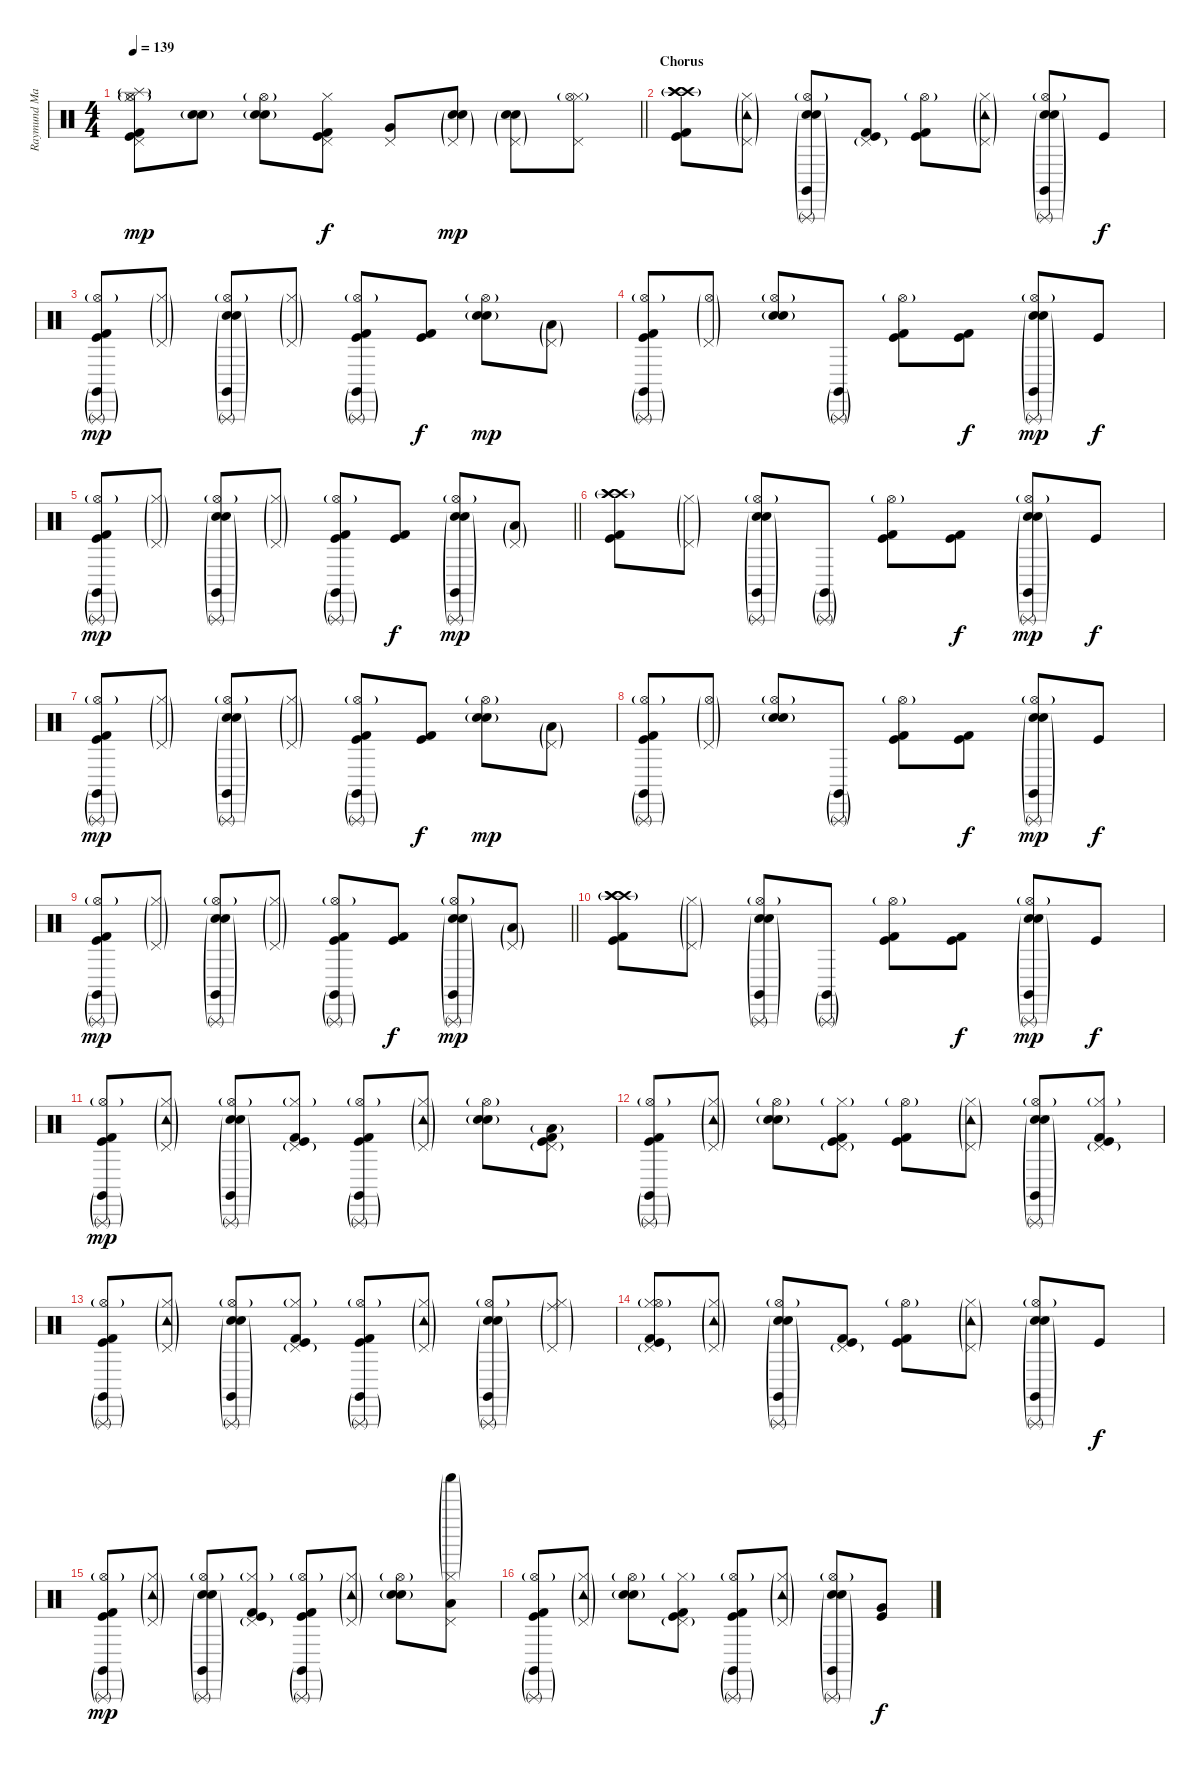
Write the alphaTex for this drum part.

\track ("Raymund Marasigan(Drums)" "Raymund Ma") {instrument percussion}
\staff {score}
\articulation defaults
\ts (4 4)
\tempo 139
\clef neutral
\barLineRight lightlight
\ks c
("Pedal Hi-Hat (hit)" "Hi-Hat (closed)" "Hi-Hat (open)"{g} "Kick (hit) 2" "Kick (hit)" "Splash (hit)"{g}).8{dy mp} ("Electric Snare (hit)" "Snare (hit) 2"{g}).8 ("Electric Snare (hit)" "Snare (hit) 2"{g} "Hi-Hat (open)"{g}).8 ("Pedal Hi-Hat (hit)" "Hi-Hat (closed)" "Kick (hit) 2" "Kick (hit)").8{dy f} ("Pedal Hi-Hat (hit)" "Very Low Tom (hit)").8 ("Pedal Hi-Hat (hit)"{g} "Electric Snare (hit)" "Snare (hit) 2"{g}).8{dy mp} ("Pedal Hi-Hat (hit)"{g} "Electric Snare (hit)" "Snare (hit) 2"{g}).8 ("Pedal Hi-Hat (hit)" "Hi-Hat (closed)" "Hi-Hat (open)"{g}).8 |
\section ("" "Chorus")
("Crash high (hit)"{g} "Crash high (hit)"{g} "Crash high (hit)"{g} "Kick (hit) 2" "Kick (hit)").8 ("Pedal Hi-Hat (hit)"{g} "Hi-Hat (closed)"{g} "Tambourine (hit)"{g}).8 ("Electric Snare (hit)" "Snare (hit) 2"{g} "Hi-Hat (open)"{g} "Triangle (rnute)"{g} "Claves (hit)"{g}).8 ("Kick (hit) 2" "Kick (hit)" "Pedal Hi-Hat (hit)"{g}).8 ("Kick (hit) 2" "Kick (hit)" "Hi-Hat (open)"{g}).8 ("Pedal Hi-Hat (hit)"{g} "Hi-Hat (closed)"{g} "Tambourine (hit)"{g}).8 ("Electric Snare (hit)" "Snare (hit) 2"{g} "Hi-Hat (open)"{g} "Triangle (rnute)"{g} "Claves (hit)"{g}).8 "Kick (hit)".8{dy f} |
("Kick (hit) 2" "Kick (hit)" "Triangle (rnute)"{g} "Claves (hit)"{g} "Hi-Hat (open)"{g}).8{dy mp} ("Pedal Hi-Hat (hit)"{g} "Hi-Hat (closed)"{g}).8 ("Electric Snare (hit)" "Snare (hit) 2"{g} "Hi-Hat (open)"{g} "Triangle (rnute)"{g} "Claves (hit)"{g}).8 ("Pedal Hi-Hat (hit)"{g} "Hi-Hat (closed)"{g}).8 ("Kick (hit) 2" "Kick (hit)" "Triangle (rnute)"{g} "Claves (hit)"{g} "Hi-Hat (open)"{g}).8 ("Kick (hit) 2" "Kick (hit)").8{dy f} ("Electric Snare (hit)" "Snare (hit) 2"{g} "Hi-Hat (open)"{g}).8{dy mp} ("Pedal Hi-Hat (hit)"{g} "Low Tom (hit)"{g}).8 |
("Hi-Hat (open)"{g} "Triangle (rnute)"{g} "Claves (hit)"{g} "Kick (hit) 2" "Kick (hit)").8 ("Pedal Hi-Hat (hit)"{g} "Hi-Hat (open)"{g}).8 ("Electric Snare (hit)" "Snare (hit) 2"{g} "Hi-Hat (open)"{g}).8 ("Triangle (rnute)"{g} "Claves (hit)"{g}).8 ("Kick (hit) 2" "Kick (hit)" "Hi-Hat (open)"{g}).8 ("Kick (hit) 2" "Kick (hit)").8{dy f} ("Electric Snare (hit)" "Snare (hit) 2"{g} "Hi-Hat (open)"{g} "Triangle (rnute)"{g} "Claves (hit)"{g}).8{dy mp} "Kick (hit)".8{dy f} |
\barLineRight lightlight
("Kick (hit) 2" "Kick (hit)" "Triangle (rnute)"{g} "Claves (hit)"{g} "Hi-Hat (open)"{g}).8{dy mp} ("Pedal Hi-Hat (hit)"{g} "Hi-Hat (closed)"{g}).8 ("Electric Snare (hit)" "Snare (hit) 2"{g} "Hi-Hat (open)"{g} "Triangle (rnute)"{g} "Claves (hit)"{g}).8 ("Pedal Hi-Hat (hit)"{g} "Hi-Hat (closed)"{g}).8 ("Kick (hit) 2" "Kick (hit)" "Triangle (rnute)"{g} "Claves (hit)"{g} "Hi-Hat (open)"{g}).8 ("Kick (hit) 2" "Kick (hit)").8{dy f} ("Electric Snare (hit)" "Snare (hit) 2"{g} "Hi-Hat (open)"{g} "Triangle (rnute)"{g} "Claves (hit)"{g}).8{dy mp} ("Pedal Hi-Hat (hit)"{g} "Low Tom (hit)"{g}).8 |
("Crash high (hit)"{g} "Crash high (hit)"{g} "Crash high (hit)"{g} "Kick (hit) 2" "Kick (hit)").8 ("Pedal Hi-Hat (hit)"{g} "Hi-Hat (closed)"{g}).8 ("Electric Snare (hit)" "Snare (hit) 2"{g} "Hi-Hat (open)"{g} "Triangle (rnute)"{g} "Claves (hit)"{g}).8 ("Triangle (rnute)"{g} "Claves (hit)"{g}).8 ("Kick (hit) 2" "Kick (hit)" "Hi-Hat (open)"{g}).8 ("Kick (hit) 2" "Kick (hit)").8{dy f} ("Electric Snare (hit)" "Snare (hit) 2"{g} "Hi-Hat (open)"{g} "Triangle (rnute)"{g} "Claves (hit)"{g}).8{dy mp} "Kick (hit)".8{dy f} |
("Kick (hit) 2" "Kick (hit)" "Triangle (rnute)"{g} "Claves (hit)"{g} "Hi-Hat (open)"{g}).8{dy mp} ("Pedal Hi-Hat (hit)"{g} "Hi-Hat (closed)"{g}).8 ("Electric Snare (hit)" "Snare (hit) 2"{g} "Hi-Hat (open)"{g} "Triangle (rnute)"{g} "Claves (hit)"{g}).8 ("Pedal Hi-Hat (hit)"{g} "Hi-Hat (closed)"{g}).8 ("Kick (hit) 2" "Kick (hit)" "Triangle (rnute)"{g} "Claves (hit)"{g} "Hi-Hat (open)"{g}).8 ("Kick (hit) 2" "Kick (hit)").8{dy f} ("Electric Snare (hit)" "Snare (hit) 2"{g} "Hi-Hat (open)"{g}).8{dy mp} ("Pedal Hi-Hat (hit)"{g} "Low Tom (hit)"{g}).8 |
("Hi-Hat (open)"{g} "Triangle (rnute)"{g} "Claves (hit)"{g} "Kick (hit) 2" "Kick (hit)").8 ("Pedal Hi-Hat (hit)"{g} "Hi-Hat (open)"{g}).8 ("Electric Snare (hit)" "Snare (hit) 2"{g} "Hi-Hat (open)"{g}).8 ("Triangle (rnute)"{g} "Claves (hit)"{g}).8 ("Kick (hit) 2" "Kick (hit)" "Hi-Hat (open)"{g}).8 ("Kick (hit) 2" "Kick (hit)").8{dy f} ("Electric Snare (hit)" "Snare (hit) 2"{g} "Hi-Hat (open)"{g} "Triangle (rnute)"{g} "Claves (hit)"{g}).8{dy mp} "Kick (hit)".8{dy f} |
\barLineRight lightlight
("Kick (hit) 2" "Kick (hit)" "Triangle (rnute)"{g} "Claves (hit)"{g} "Hi-Hat (open)"{g}).8{dy mp} ("Pedal Hi-Hat (hit)"{g} "Hi-Hat (closed)"{g}).8 ("Electric Snare (hit)" "Snare (hit) 2"{g} "Hi-Hat (open)"{g} "Triangle (rnute)"{g} "Claves (hit)"{g}).8 ("Pedal Hi-Hat (hit)"{g} "Hi-Hat (closed)"{g}).8 ("Kick (hit) 2" "Kick (hit)" "Triangle (rnute)"{g} "Claves (hit)"{g} "Hi-Hat (open)"{g}).8 ("Kick (hit) 2" "Kick (hit)").8{dy f} ("Electric Snare (hit)" "Snare (hit) 2"{g} "Hi-Hat (open)"{g} "Triangle (rnute)"{g} "Claves (hit)"{g}).8{dy mp} ("Pedal Hi-Hat (hit)"{g} "Low Tom (hit)"{g}).8 |
("Crash high (hit)"{g} "Crash high (hit)"{g} "Crash high (hit)"{g} "Kick (hit) 2" "Kick (hit)").8 ("Pedal Hi-Hat (hit)"{g} "Hi-Hat (closed)"{g}).8 ("Electric Snare (hit)" "Snare (hit) 2"{g} "Hi-Hat (open)"{g} "Triangle (rnute)"{g} "Claves (hit)"{g}).8 ("Triangle (rnute)"{g} "Claves (hit)"{g}).8 ("Kick (hit) 2" "Kick (hit)" "Hi-Hat (open)"{g}).8 ("Kick (hit) 2" "Kick (hit)").8{dy f} ("Electric Snare (hit)" "Snare (hit) 2"{g} "Hi-Hat (open)"{g} "Triangle (rnute)"{g} "Claves (hit)"{g}).8{dy mp} "Kick (hit)".8{dy f} |
("Kick (hit) 2" "Kick (hit)" "Triangle (rnute)"{g} "Claves (hit)"{g} "Hi-Hat (open)"{g}).8{dy mp} ("Pedal Hi-Hat (hit)"{g} "Hi-Hat (closed)"{g} "Tambourine (hit)"{g}).8 ("Electric Snare (hit)" "Snare (hit) 2"{g} "Hi-Hat (open)"{g} "Triangle (rnute)"{g} "Claves (hit)"{g}).8 ("Kick (hit) 2" "Kick (hit)" "Pedal Hi-Hat (hit)"{g} "Hi-Hat (closed)"{g}).8 ("Kick (hit) 2" "Kick (hit)" "Triangle (rnute)"{g} "Claves (hit)"{g} "Hi-Hat (open)"{g}).8 ("Pedal Hi-Hat (hit)"{g} "Hi-Hat (closed)"{g} "Tambourine (hit)"{g}).8 ("Electric Snare (hit)" "Snare (hit) 2"{g} "Hi-Hat (open)"{g}).8 ("Pedal Hi-Hat (hit)"{g} "Low Tom (hit)"{g} "Kick (hit) 2" "Kick (hit)").8 |
("Hi-Hat (open)"{g} "Triangle (rnute)"{g} "Claves (hit)"{g} "Kick (hit) 2" "Kick (hit)").8 ("Pedal Hi-Hat (hit)"{g} "Hi-Hat (closed)"{g} "Tambourine (hit)"{g}).8 ("Electric Snare (hit)" "Snare (hit) 2"{g} "Hi-Hat (open)"{g}).8 ("Kick (hit) 2" "Kick (hit)" "Pedal Hi-Hat (hit)"{g} "Hi-Hat (closed)"{g}).8 ("Kick (hit) 2" "Kick (hit)" "Hi-Hat (open)"{g}).8 ("Pedal Hi-Hat (hit)"{g} "Hi-Hat (closed)"{g} "Tambourine (hit)"{g}).8 ("Electric Snare (hit)" "Snare (hit) 2"{g} "Hi-Hat (open)"{g} "Triangle (rnute)"{g} "Claves (hit)"{g}).8 ("Kick (hit)" "Kick (hit) 2" "Pedal Hi-Hat (hit)"{g} "Hi-Hat (closed)"{g}).8 |
("Kick (hit) 2" "Kick (hit)" "Triangle (rnute)"{g} "Claves (hit)"{g} "Hi-Hat (open)"{g}).8 ("Pedal Hi-Hat (hit)"{g} "Hi-Hat (closed)"{g} "Tambourine (hit)"{g}).8 ("Electric Snare (hit)" "Snare (hit) 2"{g} "Hi-Hat (open)"{g} "Triangle (rnute)"{g} "Claves (hit)"{g}).8 ("Kick (hit) 2" "Kick (hit)" "Pedal Hi-Hat (hit)"{g} "Hi-Hat (closed)"{g}).8 ("Kick (hit) 2" "Kick (hit)" "Triangle (rnute)"{g} "Claves (hit)"{g} "Hi-Hat (open)"{g}).8 ("Pedal Hi-Hat (hit)"{g} "Hi-Hat (closed)"{g} "Tambourine (hit)"{g}).8 ("Electric Snare (hit)" "Snare (hit) 2"{g} "Hi-Hat (open)"{g} "Triangle (rnute)"{g} "Claves (hit)"{g}).8 ("Pedal Hi-Hat (hit)"{g} "Hi-Hat (closed)"{g} "Ride (middle)"{g}).8 |
("Pedal Hi-Hat (hit)"{g} "Hi-Hat (closed)"{g} "Hi-Hat (open)"{g} "Kick (hit) 2" "Kick (hit)").8 ("Pedal Hi-Hat (hit)"{g} "Hi-Hat (closed)"{g} "Tambourine (hit)"{g}).8 ("Electric Snare (hit)" "Snare (hit) 2"{g} "Hi-Hat (open)"{g} "Triangle (rnute)"{g} "Claves (hit)"{g}).8 ("Kick (hit) 2" "Kick (hit)" "Pedal Hi-Hat (hit)"{g}).8 ("Kick (hit) 2" "Kick (hit)" "Hi-Hat (open)"{g}).8 ("Pedal Hi-Hat (hit)"{g} "Hi-Hat (closed)"{g} "Tambourine (hit)"{g}).8 ("Electric Snare (hit)" "Snare (hit) 2"{g} "Hi-Hat (open)"{g} "Triangle (rnute)"{g} "Claves (hit)"{g}).8 "Kick (hit)".8{dy f} |
("Kick (hit) 2" "Kick (hit)" "Triangle (rnute)"{g} "Claves (hit)"{g} "Hi-Hat (open)"{g}).8{dy mp} ("Pedal Hi-Hat (hit)"{g} "Hi-Hat (closed)"{g} "Tambourine (hit)"{g}).8 ("Electric Snare (hit)" "Snare (hit) 2"{g} "Hi-Hat (open)"{g} "Triangle (rnute)"{g} "Claves (hit)"{g}).8 ("Kick (hit) 2" "Kick (hit)" "Pedal Hi-Hat (hit)"{g} "Hi-Hat (closed)"{g}).8 ("Kick (hit) 2" "Kick (hit)" "Triangle (rnute)"{g} "Claves (hit)"{g} "Hi-Hat (open)"{g}).8 ("Pedal Hi-Hat (hit)"{g} "Hi-Hat (closed)"{g} "Tambourine (hit)"{g}).8 ("Electric Snare (hit)" "Snare (hit) 2"{g} "Hi-Hat (open)"{g}).8 ("Pedal Hi-Hat (hit)" "Hi-Hat (closed)"{g} "Shaker (hit)"{g} "Low Tom (hit)").8 |
("Hi-Hat (open)"{g} "Triangle (rnute)"{g} "Claves (hit)"{g} "Kick (hit) 2" "Kick (hit)").8 ("Pedal Hi-Hat (hit)"{g} "Hi-Hat (closed)"{g} "Tambourine (hit)"{g}).8 ("Electric Snare (hit)" "Snare (hit) 2"{g} "Hi-Hat (open)"{g}).8 ("Kick (hit) 2" "Kick (hit)" "Pedal Hi-Hat (hit)"{g} "Hi-Hat (closed)"{g}).8 ("Kick (hit) 2" "Kick (hit)" "Triangle (rnute)"{g} "Claves (hit)"{g} "Hi-Hat (open)"{g}).8 ("Pedal Hi-Hat (hit)"{g} "Hi-Hat (closed)"{g} "Tambourine (hit)"{g}).8 ("Electric Snare (hit)" "Snare (hit) 2"{g} "Hi-Hat (open)"{g} "Triangle (rnute)"{g} "Claves (hit)"{g}).8 ("Very Low Tom (hit)" "Kick (hit)").8{dy f}
